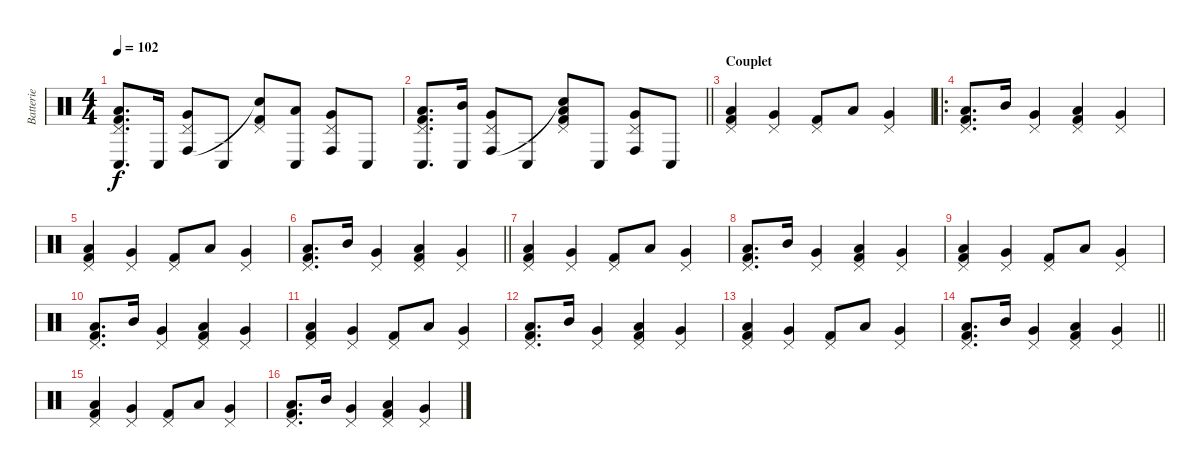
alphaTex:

\track ("Batterie" "Batterie") {instrument percussion}
\staff {score}
\articulation defaults
\ts (4 4)
\tempo 102
\clef neutral
\ks c
("Pedal Hi-Hat (hit)" "Conga low (hit)" "Low Tom (hit)" "Kick (hit) 2").8{d dy f} "Conga low (hit)".16 ("Pedal Hi-Hat (hit)" "Conga high (hit)" "Very Low Tom (hit)").8 "Conga low (hit)".8 ("Pedal Hi-Hat (hit)" "Snare (hit)"{t} "Kick (hit) 2").8 ("Conga low (hit)" "Low Floor Tom (hit)").8 ("Pedal Hi-Hat (hit)" "Conga high (hit)" "Very Low Tom (hit)").8 "Conga low (hit)".8 |
\barLineRight lightlight
("Pedal Hi-Hat (hit)" "Conga low (hit)" "Low Tom (hit)" "Kick (hit) 2").8{d} ("Conga low (hit)" "Mid Tom (hit)").16 ("Pedal Hi-Hat (hit)" "Conga high (hit)" "Very Low Tom (hit)").8 "Conga low (hit)".8 ("Pedal Hi-Hat (hit)" "Snare (hit)"{t} "Low Floor Tom (hit)" "Kick (hit) 2").8 "Conga low (hit)".8 ("Pedal Hi-Hat (hit)" "Conga high (hit)" "Very Low Tom (hit)").8 "Conga low (hit)".8 |
\section ("" "Couplet")
("Pedal Hi-Hat (hit)" "Low Tom (hit)" "Kick (hit) 2").4 ("Pedal Hi-Hat (hit)" "Very Low Tom (hit)").4 ("Pedal Hi-Hat (hit)" "Kick (hit) 2").8 "Low Floor Tom (hit)".8 ("Pedal Hi-Hat (hit)" "Very Low Tom (hit)").4 |
\ro
("Pedal Hi-Hat (hit)" "Low Tom (hit)" "Kick (hit) 2").8{d} "Mid Tom (hit)".16 ("Pedal Hi-Hat (hit)" "Very Low Tom (hit)").4 ("Pedal Hi-Hat (hit)" "Low Floor Tom (hit)" "Kick (hit) 2").4 ("Pedal Hi-Hat (hit)" "Very Low Tom (hit)").4 |
("Pedal Hi-Hat (hit)" "Low Tom (hit)" "Kick (hit) 2").4 ("Pedal Hi-Hat (hit)" "Very Low Tom (hit)").4 ("Pedal Hi-Hat (hit)" "Kick (hit) 2").8 "Low Floor Tom (hit)".8 ("Pedal Hi-Hat (hit)" "Very Low Tom (hit)").4 |
\barLineRight lightlight
("Pedal Hi-Hat (hit)" "Low Tom (hit)" "Kick (hit) 2").8{d} "Mid Tom (hit)".16 ("Pedal Hi-Hat (hit)" "Very Low Tom (hit)").4 ("Pedal Hi-Hat (hit)" "Low Floor Tom (hit)" "Kick (hit) 2").4 ("Pedal Hi-Hat (hit)" "Very Low Tom (hit)").4 |
("Pedal Hi-Hat (hit)" "Low Tom (hit)" "Kick (hit) 2").4 ("Pedal Hi-Hat (hit)" "Very Low Tom (hit)").4 ("Pedal Hi-Hat (hit)" "Kick (hit) 2").8 "Low Floor Tom (hit)".8 ("Pedal Hi-Hat (hit)" "Very Low Tom (hit)").4 |
("Pedal Hi-Hat (hit)" "Low Tom (hit)" "Kick (hit) 2").8{d} "Mid Tom (hit)".16 ("Pedal Hi-Hat (hit)" "Very Low Tom (hit)").4 ("Pedal Hi-Hat (hit)" "Low Floor Tom (hit)" "Kick (hit) 2").4 ("Pedal Hi-Hat (hit)" "Very Low Tom (hit)").4 |
("Pedal Hi-Hat (hit)" "Low Tom (hit)" "Kick (hit) 2").4 ("Pedal Hi-Hat (hit)" "Very Low Tom (hit)").4 ("Pedal Hi-Hat (hit)" "Kick (hit) 2").8 "Low Floor Tom (hit)".8 ("Pedal Hi-Hat (hit)" "Very Low Tom (hit)").4 |
("Pedal Hi-Hat (hit)" "Low Tom (hit)" "Kick (hit) 2").8{d} "Mid Tom (hit)".16 ("Pedal Hi-Hat (hit)" "Very Low Tom (hit)").4 ("Pedal Hi-Hat (hit)" "Low Floor Tom (hit)" "Kick (hit) 2").4 ("Pedal Hi-Hat (hit)" "Very Low Tom (hit)").4 |
("Pedal Hi-Hat (hit)" "Low Tom (hit)" "Kick (hit) 2").4 ("Pedal Hi-Hat (hit)" "Very Low Tom (hit)").4 ("Pedal Hi-Hat (hit)" "Kick (hit) 2").8 "Low Floor Tom (hit)".8 ("Pedal Hi-Hat (hit)" "Very Low Tom (hit)").4 |
("Pedal Hi-Hat (hit)" "Low Tom (hit)" "Kick (hit) 2").8{d} "Mid Tom (hit)".16 ("Pedal Hi-Hat (hit)" "Very Low Tom (hit)").4 ("Pedal Hi-Hat (hit)" "Low Floor Tom (hit)" "Kick (hit) 2").4 ("Pedal Hi-Hat (hit)" "Very Low Tom (hit)").4 |
("Pedal Hi-Hat (hit)" "Low Tom (hit)" "Kick (hit) 2").4 ("Pedal Hi-Hat (hit)" "Very Low Tom (hit)").4 ("Pedal Hi-Hat (hit)" "Kick (hit) 2").8 "Low Floor Tom (hit)".8 ("Pedal Hi-Hat (hit)" "Very Low Tom (hit)").4 |
\barLineRight lightlight
("Pedal Hi-Hat (hit)" "Low Tom (hit)" "Kick (hit) 2").8{d} "Mid Tom (hit)".16 ("Pedal Hi-Hat (hit)" "Very Low Tom (hit)").4 ("Pedal Hi-Hat (hit)" "Low Floor Tom (hit)" "Kick (hit) 2").4 ("Pedal Hi-Hat (hit)" "Very Low Tom (hit)").4 |
("Pedal Hi-Hat (hit)" "Low Tom (hit)" "Kick (hit) 2").4 ("Pedal Hi-Hat (hit)" "Very Low Tom (hit)").4 ("Pedal Hi-Hat (hit)" "Kick (hit) 2").8 "Low Floor Tom (hit)".8 ("Pedal Hi-Hat (hit)" "Very Low Tom (hit)").4 |
("Pedal Hi-Hat (hit)" "Low Tom (hit)" "Kick (hit) 2").8{d} "Mid Tom (hit)".16 ("Pedal Hi-Hat (hit)" "Very Low Tom (hit)").4 ("Pedal Hi-Hat (hit)" "Low Floor Tom (hit)" "Kick (hit) 2").4 ("Pedal Hi-Hat (hit)" "Very Low Tom (hit)").4
